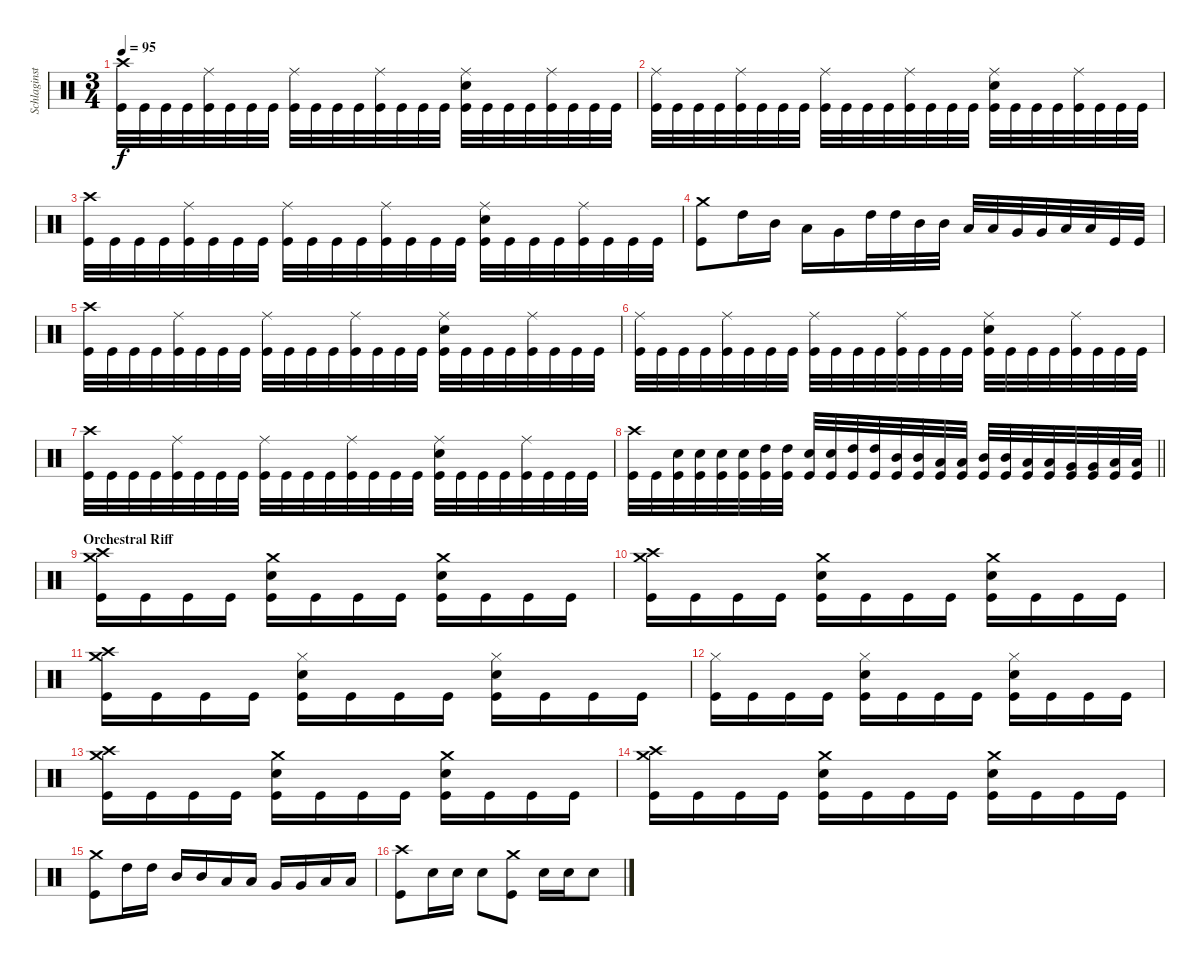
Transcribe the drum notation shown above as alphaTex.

\track ("Schlaginstrumente - Auswahl" "Schlaginst") {instrument percussion}
\staff {score}
\articulation defaults
\ts (3 4)
\tempo 95
\clef neutral
\ks c
("Kick (hit)" "Crash high (hit)").32{dy f} "Kick (hit)".32 "Kick (hit)".32 "Kick (hit)".32 ("Kick (hit)" "Ride (middle)").32 "Kick (hit)".32 "Kick (hit)".32 "Kick (hit)".32 ("Kick (hit)" "Ride (middle)").32 "Kick (hit)".32 "Kick (hit)".32 "Kick (hit)".32 ("Kick (hit)" "Ride (middle)").32 "Kick (hit)".32 "Kick (hit)".32 "Kick (hit)".32 ("Kick (hit)" "Ride (middle)" "Snare (hit) 2").32 "Kick (hit)".32 "Kick (hit)".32 "Kick (hit)".32 ("Kick (hit)" "Ride (middle)").32 "Kick (hit)".32 "Kick (hit)".32 "Kick (hit)".32 |
("Kick (hit)" "Ride (middle)").32 "Kick (hit)".32 "Kick (hit)".32 "Kick (hit)".32 ("Kick (hit)" "Ride (middle)").32 "Kick (hit)".32 "Kick (hit)".32 "Kick (hit)".32 ("Kick (hit)" "Ride (middle)").32 "Kick (hit)".32 "Kick (hit)".32 "Kick (hit)".32 ("Kick (hit)" "Ride (middle)").32 "Kick (hit)".32 "Kick (hit)".32 "Kick (hit)".32 ("Kick (hit)" "Ride (middle)" "Snare (hit) 2").32 "Kick (hit)".32 "Kick (hit)".32 "Kick (hit)".32 ("Kick (hit)" "Ride (middle)").32 "Kick (hit)".32 "Kick (hit)".32 "Kick (hit)".32 |
("Kick (hit)" "Crash high (hit)").32 "Kick (hit)".32 "Kick (hit)".32 "Kick (hit)".32 ("Kick (hit)" "Ride (middle)").32 "Kick (hit)".32 "Kick (hit)".32 "Kick (hit)".32 ("Kick (hit)" "Ride (middle)").32 "Kick (hit)".32 "Kick (hit)".32 "Kick (hit)".32 ("Kick (hit)" "Ride (middle)").32 "Kick (hit)".32 "Kick (hit)".32 "Kick (hit)".32 ("Kick (hit)" "Ride (middle)" "Snare (hit) 2").32 "Kick (hit)".32 "Kick (hit)".32 "Kick (hit)".32 ("Kick (hit)" "Ride (middle)").32 "Kick (hit)".32 "Kick (hit)".32 "Kick (hit)".32 |
("Kick (hit)" "Crash medium (hit)").8 "High Tom (hit)".16 "Mid Tom (hit)".16 "Low Tom (hit)".16 "Very Low Tom (hit)".16 "High Tom (hit)".32 "High Tom (hit)".32 "Mid Tom (hit)".32 "Mid Tom (hit)".32 "Low Tom (hit)".32 "Low Tom (hit)".32 "Very Low Tom (hit)".32 "Very Low Tom (hit)".32 "Low Floor Tom (hit)".32 "Low Floor Tom (hit)".32 "Kick (hit)".32 "Kick (hit)".32 |
("Kick (hit)" "Crash high (hit)").32 "Kick (hit)".32 "Kick (hit)".32 "Kick (hit)".32 ("Kick (hit)" "Ride (middle)").32 "Kick (hit)".32 "Kick (hit)".32 "Kick (hit)".32 ("Kick (hit)" "Ride (middle)").32 "Kick (hit)".32 "Kick (hit)".32 "Kick (hit)".32 ("Kick (hit)" "Ride (middle)").32 "Kick (hit)".32 "Kick (hit)".32 "Kick (hit)".32 ("Kick (hit)" "Ride (middle)" "Snare (hit) 2").32 "Kick (hit)".32 "Kick (hit)".32 "Kick (hit)".32 ("Kick (hit)" "Ride (middle)").32 "Kick (hit)".32 "Kick (hit)".32 "Kick (hit)".32 |
("Kick (hit)" "Ride (middle)").32 "Kick (hit)".32 "Kick (hit)".32 "Kick (hit)".32 ("Kick (hit)" "Ride (middle)").32 "Kick (hit)".32 "Kick (hit)".32 "Kick (hit)".32 ("Kick (hit)" "Ride (middle)").32 "Kick (hit)".32 "Kick (hit)".32 "Kick (hit)".32 ("Kick (hit)" "Ride (middle)").32 "Kick (hit)".32 "Kick (hit)".32 "Kick (hit)".32 ("Kick (hit)" "Ride (middle)" "Snare (hit) 2").32 "Kick (hit)".32 "Kick (hit)".32 "Kick (hit)".32 ("Kick (hit)" "Ride (middle)").32 "Kick (hit)".32 "Kick (hit)".32 "Kick (hit)".32 |
("Kick (hit)" "Crash high (hit)").32 "Kick (hit)".32 "Kick (hit)".32 "Kick (hit)".32 ("Kick (hit)" "Ride (middle)").32 "Kick (hit)".32 "Kick (hit)".32 "Kick (hit)".32 ("Kick (hit)" "Ride (middle)").32 "Kick (hit)".32 "Kick (hit)".32 "Kick (hit)".32 ("Kick (hit)" "Ride (middle)").32 "Kick (hit)".32 "Kick (hit)".32 "Kick (hit)".32 ("Kick (hit)" "Ride (middle)" "Snare (hit) 2").32 "Kick (hit)".32 "Kick (hit)".32 "Kick (hit)".32 ("Kick (hit)" "Ride (middle)").32 "Kick (hit)".32 "Kick (hit)".32 "Kick (hit)".32 |
\barLineRight lightlight
("Kick (hit)" "Crash high (hit)").32 "Kick (hit)".32 ("Kick (hit)" "Snare (hit) 2").32 ("Kick (hit)" "Snare (hit) 2").32 ("Kick (hit)" "Snare (hit) 2").32 ("Kick (hit)" "Snare (hit) 2").32 ("Kick (hit)" "High Tom (hit)").32 ("Kick (hit)" "High Tom (hit)").32 ("Snare (hit) 2" "Kick (hit)").32 ("Kick (hit)" "Snare (hit) 2").32 ("Kick (hit)" "High Tom (hit)").32 ("Kick (hit)" "High Tom (hit)").32 ("Kick (hit)" "Mid Tom (hit)").32 ("Kick (hit)" "Mid Tom (hit)").32 ("Kick (hit)" "Low Tom (hit)").32 ("Low Tom (hit)" "Kick (hit)").32 ("Kick (hit)" "Mid Tom (hit)").32 ("Kick (hit)" "Mid Tom (hit)").32 ("Kick (hit)" "Low Tom (hit)").32 ("Kick (hit)" "Low Tom (hit)").32 ("Kick (hit)" "Very Low Tom (hit)").32 ("Kick (hit)" "Very Low Tom (hit)").32 ("Kick (hit)" "Low Floor Tom (hit)").32 ("Kick (hit)" "Low Floor Tom (hit)").32 |
\section ("" "Orchestral Riff")
("Crash medium (hit)" "Crash high (hit)" "Kick (hit)").16 "Kick (hit)".16 "Kick (hit)".16 "Kick (hit)".16 ("Crash medium (hit)" "Snare (hit) 2" "Kick (hit)").16 "Kick (hit)".16 "Kick (hit)".16 "Kick (hit)".16 ("Crash medium (hit)" "Snare (hit) 2" "Kick (hit)").16 "Kick (hit)".16 "Kick (hit)".16 "Kick (hit)".16 |
("Crash medium (hit)" "Crash high (hit)" "Kick (hit)").16 "Kick (hit)".16 "Kick (hit)".16 "Kick (hit)".16 ("Crash medium (hit)" "Snare (hit) 2" "Kick (hit)").16 "Kick (hit)".16 "Kick (hit)".16 "Kick (hit)".16 ("Crash medium (hit)" "Snare (hit) 2" "Kick (hit)").16 "Kick (hit)".16 "Kick (hit)".16 "Kick (hit)".16 |
("Crash medium (hit)" "Crash high (hit)" "Kick (hit)").16 "Kick (hit)".16 "Kick (hit)".16 "Kick (hit)".16 ("Hi-Hat (closed)" "Snare (hit) 2" "Kick (hit)").16 "Kick (hit)".16 "Kick (hit)".16 "Kick (hit)".16 ("Hi-Hat (closed)" "Snare (hit) 2" "Kick (hit)").16 "Kick (hit)".16 "Kick (hit)".16 "Kick (hit)".16 |
("Hi-Hat (closed)" "Kick (hit)").16 "Kick (hit)".16 "Kick (hit)".16 "Kick (hit)".16 ("Hi-Hat (closed)" "Snare (hit) 2" "Kick (hit)").16 "Kick (hit)".16 "Kick (hit)".16 "Kick (hit)".16 ("Hi-Hat (closed)" "Snare (hit) 2" "Kick (hit)").16 "Kick (hit)".16 "Kick (hit)".16 "Kick (hit)".16 |
("Crash medium (hit)" "Crash high (hit)" "Kick (hit)").16 "Kick (hit)".16 "Kick (hit)".16 "Kick (hit)".16 ("Crash medium (hit)" "Snare (hit) 2" "Kick (hit)").16 "Kick (hit)".16 "Kick (hit)".16 "Kick (hit)".16 ("Crash medium (hit)" "Snare (hit) 2" "Kick (hit)").16 "Kick (hit)".16 "Kick (hit)".16 "Kick (hit)".16 |
("Crash medium (hit)" "Crash high (hit)" "Kick (hit)").16 "Kick (hit)".16 "Kick (hit)".16 "Kick (hit)".16 ("Crash medium (hit)" "Snare (hit) 2" "Kick (hit)").16 "Kick (hit)".16 "Kick (hit)".16 "Kick (hit)".16 ("Crash medium (hit)" "Snare (hit) 2" "Kick (hit)").16 "Kick (hit)".16 "Kick (hit)".16 "Kick (hit)".16 |
("Kick (hit)" "Crash medium (hit)").8 "High Tom (hit)".16 "High Tom (hit)".16 "Mid Tom (hit)".16 "Mid Tom (hit)".16 "Low Tom (hit)".16 "Low Tom (hit)".16 "Very Low Tom (hit)".16 "Very Low Tom (hit)".16 "Low Floor Tom (hit)".16 "Low Floor Tom (hit)".16 |
("Crash high (hit)" "Kick (hit)").8 "Snare (hit) 2".16 "Snare (hit) 2".16 "Snare (hit) 2".8 ("Kick (hit)" "Crash medium (hit)").8 "Snare (hit) 2".16 "Snare (hit) 2".16 "Snare (hit) 2".8
